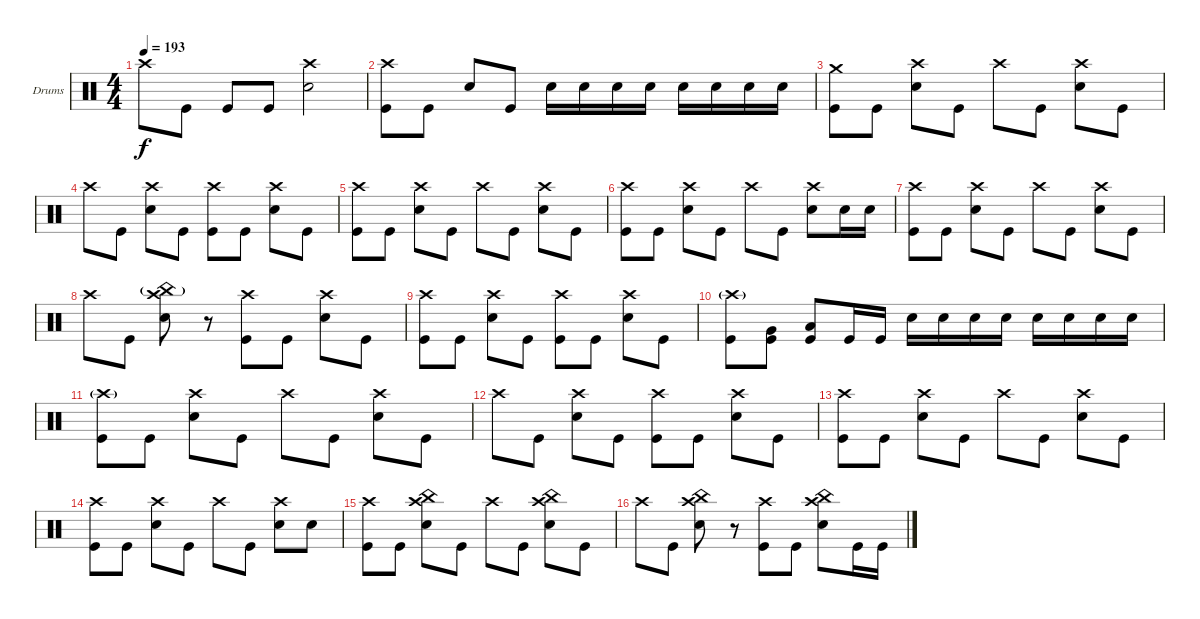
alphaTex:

\bracketExtendMode groupsimilarinstruments
\firstSystemTrackNameOrientation horizontal
\otherSystemsTrackNameOrientation horizontal
\track ("Drumkit" "Drums") {instrument percussion}
\staff {score}
\articulation defaults
\ts (4 4)
\tempo 193
\clef neutral
\ks c "Crash high (hit)".8{dy f} "Kick (hit)".8 "Kick (hit)".8 "Kick (hit)".8
("Crash high (hit)" "Snare (hit) 2").2 |
("Crash high (hit)" "Kick (hit)").8 "Kick (hit)".8 "Snare (hit) 2".8 "Kick (hit)".8 "Snare (hit) 2".16 "Snare (hit) 2".16 "Snare (hit) 2".16 "Snare (hit) 2".16 "Snare (hit) 2".16 "Snare (hit) 2".16 "Snare (hit) 2".16 "Snare (hit) 2".16 |
("Crash medium (hit)" "Kick (hit)").8 "Kick (hit)".8 ("Crash high (hit)" "Snare (hit) 2").8 "Kick (hit)".8 "Crash high (hit)".8 "Kick (hit)".8 ("Crash high (hit)" "Snare (hit) 2").8 "Kick (hit)".8 |
"Crash high (hit)".8 "Kick (hit)".8 ("Crash high (hit)" "Snare (hit) 2").8 "Kick (hit)".8 ("Crash high (hit)" "Kick (hit)").8 "Kick (hit)".8 ("Crash high (hit)" "Snare (hit) 2").8 "Kick (hit)".8 |
("Crash high (hit)" "Kick (hit)").8 "Kick (hit)".8 ("Crash high (hit)" "Snare (hit) 2").8 "Kick (hit)".8 "Crash high (hit)".8 "Kick (hit)".8 ("Crash high (hit)" "Snare (hit) 2").8 "Kick (hit)".8 |
("Crash high (hit)" "Kick (hit)").8 "Kick (hit)".8 ("Crash high (hit)" "Snare (hit) 2").8 "Kick (hit)".8 "Crash high (hit)".8 "Kick (hit)".8 ("Crash high (hit)" "Snare (hit) 2").8 "Snare (hit) 2".16 "Snare (hit) 2".16 |
("Crash high (hit)" "Kick (hit)").8 "Kick (hit)".8 ("Crash high (hit)" "Snare (hit) 2").8 "Kick (hit)".8 "Crash high (hit)".8 "Kick (hit)".8 ("Crash high (hit)" "Snare (hit) 2").8 "Kick (hit)".8 |
"Crash high (hit)".8 "Kick (hit)".8 ("China (hit)"{g} "Crash high (hit)" "Snare (hit) 2").8 r.8 ("Crash high (hit)" "Kick (hit)").8 "Kick (hit)".8 ("Crash high (hit)" "Snare (hit) 2").8 "Kick (hit)".8 |
("Crash high (hit)" "Kick (hit)").8 "Kick (hit)".8 ("Crash high (hit)" "Snare (hit) 2").8 "Kick (hit)".8 ("Crash high (hit)" "Kick (hit)").8 "Kick (hit)".8 ("Crash high (hit)" "Snare (hit) 2").8 "Kick (hit)".8 |
("Crash high (hit)"{g} "Kick (hit)").8 ("Very Low Tom (hit)" "Kick (hit)").8 ("Low Tom (hit)" "Kick (hit)").8 "Kick (hit)".16 "Kick (hit)".16 "Snare (hit) 2".16 "Snare (hit) 2".16 "Snare (hit) 2".16 "Snare (hit) 2".16 "Snare (hit) 2".16 "Snare (hit) 2".16 "Snare (hit) 2".16 "Snare (hit) 2".16 |
("Crash high (hit)"{g} "Kick (hit)").8 "Kick (hit)".8 ("Crash high (hit)" "Snare (hit) 2").8 "Kick (hit)".8 "Crash high (hit)".8 "Kick (hit)".8 ("Crash high (hit)" "Snare (hit) 2").8 "Kick (hit)".8 |
"Crash high (hit)".8 "Kick (hit)".8 ("Crash high (hit)" "Snare (hit) 2").8 "Kick (hit)".8 ("Crash high (hit)" "Kick (hit)").8 "Kick (hit)".8 ("Crash high (hit)" "Snare (hit) 2").8 "Kick (hit)".8 |
("Crash high (hit)" "Kick (hit)").8 "Kick (hit)".8 ("Crash high (hit)" "Snare (hit) 2").8 "Kick (hit)".8 "Crash high (hit)".8 "Kick (hit)".8 ("Crash high (hit)" "Snare (hit) 2").8 "Kick (hit)".8 |
("Crash high (hit)" "Kick (hit)").8 "Kick (hit)".8 ("Crash high (hit)" "Snare (hit) 2").8 "Kick (hit)".8 "Crash high (hit)".8 "Kick (hit)".8 ("Crash high (hit)" "Snare (hit) 2").8 "Snare (hit) 2".8 |
("Crash high (hit)" "Kick (hit)").8 "Kick (hit)".8 ("China (hit)" "Crash high (hit)" "Snare (hit) 2").8 "Kick (hit)".8 "Crash high (hit)".8 "Kick (hit)".8 ("China (hit)" "Crash high (hit)" "Snare (hit) 2").8 "Kick (hit)".8 |
"Crash high (hit)".8 "Kick (hit)".8 ("China (hit)" "Crash high (hit)" "Snare (hit) 2").8 r.8 ("Crash high (hit)" "Kick (hit)").8 "Kick (hit)".8 ("China (hit)" "Crash high (hit)" "Snare (hit) 2").8 "Kick (hit)".16 "Kick (hit)".16
